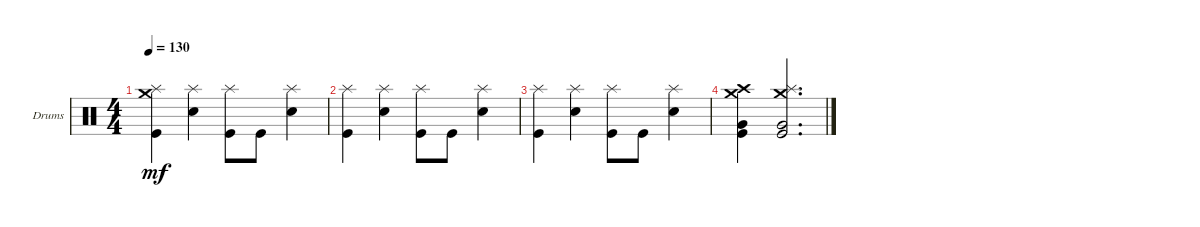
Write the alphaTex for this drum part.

\defaultSystemsLayout 4
\bracketExtendMode groupsimilarinstruments
\firstSystemTrackNameOrientation horizontal
\otherSystemsTrackNameOrientation horizontal
\track ("Drums" "Drums") {instrument percussion}
\staff {score}
\articulation defaults
\ts (4 4)
\tempo 130
\clef neutral
\ks c
("Kick (hit)" "Crash medium (hit)" "Splash (hit)").4{dy mf} ("Snare (hit) 2" "Splash (hit)").4 ("Kick (hit)" "Splash (hit)").8 "Kick (hit)".8 ("Snare (hit) 2" "Splash (hit)").4 |
("Kick (hit)" "Splash (hit)").4 ("Snare (hit) 2" "Splash (hit)").4 ("Kick (hit)" "Splash (hit)").8 "Kick (hit)".8 ("Snare (hit) 2" "Splash (hit)").4 |
("Kick (hit)" "Splash (hit)").4 ("Snare (hit) 2" "Splash (hit)").4 ("Kick (hit)" "Splash (hit)").8 "Kick (hit)".8 ("Snare (hit) 2" "Splash (hit)").4 |
("Kick (hit)" "Very Low Tom (hit)" "Crash medium (hit)" "Crash high (hit)").4 ("Kick (hit)" "Very Low Tom (hit)" "Crash medium (hit)" "Splash (hit)").2{d}
